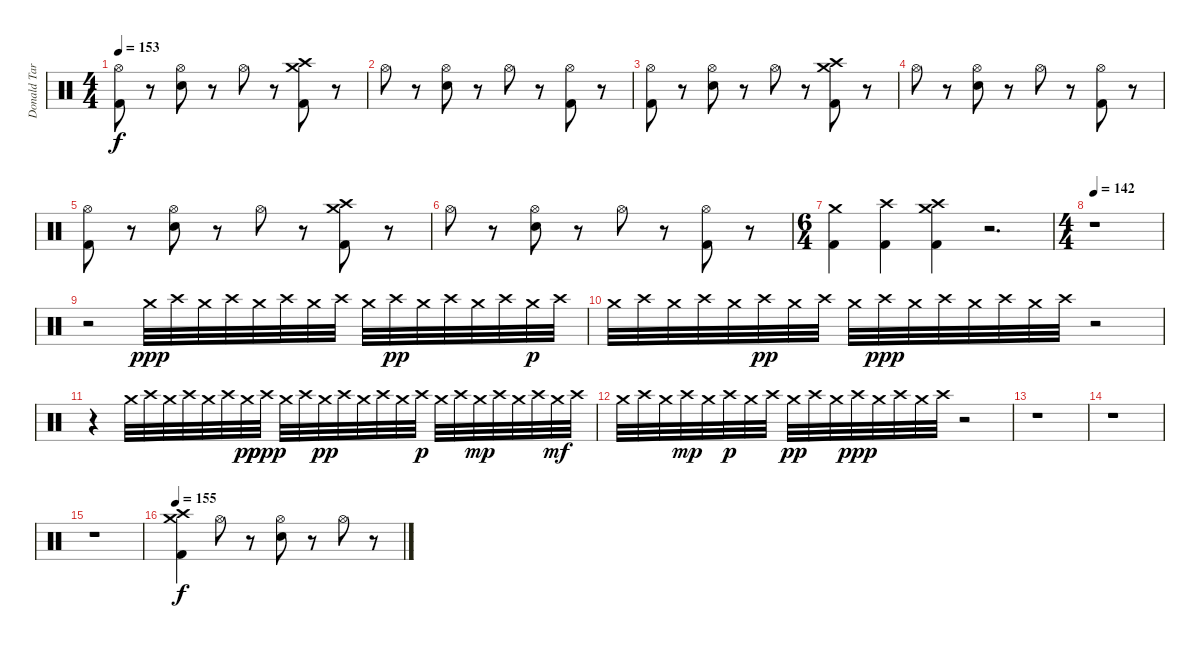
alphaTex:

\track ("Donald Tardy (Drums)" "Donald Tar") {instrument percussion}
\staff {score}
\articulation defaults
\ts (4 4)
\tempo 153
\clef neutral
\ks c
("Kick (hit) 2" "Hi-Hat (open)").8{dy f} r.8 ("Electric Snare (hit)" "Hi-Hat (open)").8 r.8 "Hi-Hat (open)".8 r.8 ("Kick (hit) 2" "Crash medium (hit)" "Crash high (hit)").8 r.8 |
"Hi-Hat (open)".8 r.8 ("Electric Snare (hit)" "Hi-Hat (open)").8 r.8 "Hi-Hat (open)".8 r.8 ("Kick (hit) 2" "Hi-Hat (open)").8 r.8 |
("Kick (hit) 2" "Hi-Hat (open)").8 r.8 ("Electric Snare (hit)" "Hi-Hat (open)").8 r.8 "Hi-Hat (open)".8 r.8 ("Kick (hit) 2" "Crash medium (hit)" "Crash high (hit)").8 r.8 |
"Hi-Hat (open)".8 r.8 ("Electric Snare (hit)" "Hi-Hat (open)").8 r.8 "Hi-Hat (open)".8 r.8 ("Kick (hit) 2" "Hi-Hat (open)").8 r.8 |
("Kick (hit) 2" "Hi-Hat (open)").8 r.8 ("Electric Snare (hit)" "Hi-Hat (open)").8 r.8 "Hi-Hat (open)".8 r.8 ("Kick (hit) 2" "Crash medium (hit)" "Crash high (hit)").8 r.8 |
"Hi-Hat (open)".8 r.8 ("Electric Snare (hit)" "Hi-Hat (open)").8 r.8 "Hi-Hat (open)".8 r.8 ("Kick (hit) 2" "Hi-Hat (open)").8 r.8 |
\ts (6 4)
("Kick (hit) 2" "Crash medium (hit)").4 ("Kick (hit) 2" "Crash high (hit)").4 ("Kick (hit) 2" "Crash medium (hit)" "Crash high (hit)").4 r.2{d} |
\ts (4 4)
\tempo 142
r.1 |
r.2 "Crash medium (hit)".32{dy ppp} "Crash high (hit)".32 "Crash medium (hit)".32 "Crash high (hit)".32 "Crash medium (hit)".32 "Crash high (hit)".32 "Crash medium (hit)".32 "Crash high (hit)".32 "Crash medium (hit)".32 "Crash high (hit)".32{dy pp} "Crash medium (hit)".32 "Crash high (hit)".32 "Crash medium (hit)".32 "Crash high (hit)".32 "Crash medium (hit)".32{dy p} "Crash high (hit)".32 |
"Crash medium (hit)".32 "Crash high (hit)".32 "Crash medium (hit)".32 "Crash high (hit)".32 "Crash medium (hit)".32 "Crash high (hit)".32{dy pp} "Crash medium (hit)".32 "Crash high (hit)".32 "Crash medium (hit)".32 "Crash high (hit)".32{dy ppp} "Crash medium (hit)".32 "Crash high (hit)".32 "Crash medium (hit)".32 "Crash high (hit)".32 "Crash medium (hit)".32 "Crash high (hit)".32 r.2 |
r.4 "Crash medium (hit)".32 "Crash high (hit)".32 "Crash medium (hit)".32 "Crash high (hit)".32 "Crash medium (hit)".32 "Crash high (hit)".32 "Crash medium (hit)".32{dy pp} "Crash high (hit)".32{dy ppp} "Crash medium (hit)".32 "Crash high (hit)".32 "Crash medium (hit)".32{dy pp} "Crash high (hit)".32 "Crash medium (hit)".32 "Crash high (hit)".32 "Crash medium (hit)".32 "Crash high (hit)".32{dy p} "Crash medium (hit)".32 "Crash high (hit)".32 "Crash medium (hit)".32{dy mp} "Crash high (hit)".32 "Crash medium (hit)".32 "Crash high (hit)".32 "Crash medium (hit)".32{dy mf} "Crash high (hit)".32 |
"Crash medium (hit)".32 "Crash high (hit)".32 "Crash medium (hit)".32 "Crash high (hit)".32{dy mp} "Crash medium (hit)".32 "Crash high (hit)".32{dy p} "Crash medium (hit)".32 "Crash high (hit)".32 "Crash medium (hit)".32{dy pp} "Crash high (hit)".32 "Crash medium (hit)".32 "Crash high (hit)".32{dy ppp} "Crash medium (hit)".32 "Crash high (hit)".32 "Crash medium (hit)".32 "Crash high (hit)".32 r.2 |
r.1 |
r.1 |
r.1 |
\tempo 155
("Kick (hit) 2" "Crash medium (hit)" "Crash high (hit)").4{dy f} "Hi-Hat (open)".8 r.8 ("Electric Snare (hit)" "Hi-Hat (open)").8 r.8 "Hi-Hat (open)".8 r.8
